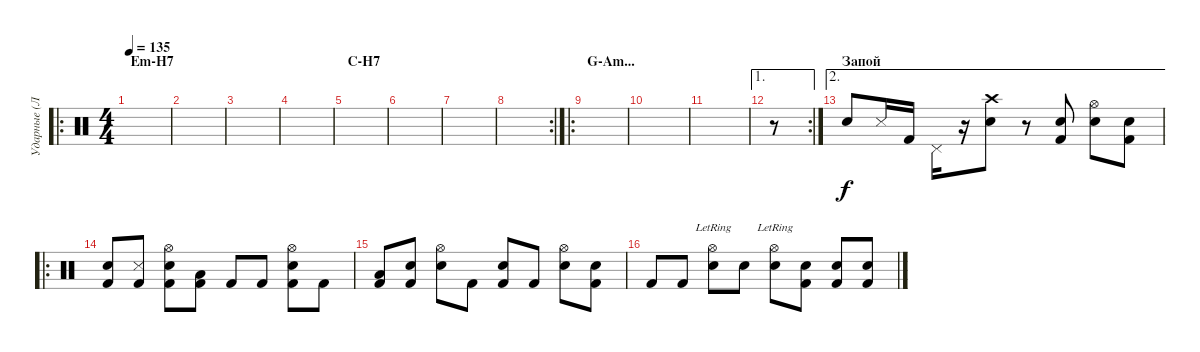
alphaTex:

\track ("Ударные (Лысов)" "Ударные (Л") {instrument percussion}
\staff {score}
\articulation defaults
\ro
\ts (4 4)
\section ("" "Em-H7")
\tempo 135
\clef neutral
\ks c
|
|
|
|
\section ("" "C-H7")
|
|
|
\rc 2
|
\ro
\section ("" "G-Am...")
|
|
|
\ae 1
\rc 2
r.8 |
\ae 2
\section ("" "Запой")
"Snare (hit) 2".8 "Snare (side stick) 3".16 "Kick (hit) 2".16 "Pedal Hi-Hat (hit)".16 r.16 ("Snare (hit) 2" "Crash high (hit)").8 r.8 ("Snare (hit) 2" "Kick (hit) 2").8 ("Hi-Hat (open)" "Snare (hit) 2").8 ("Snare (hit) 2" "Kick (hit) 2").8 |
\ro
("Kick (hit) 2" "Snare (hit) 2").8 ("Kick (hit) 2" "Snare (side stick) 3").8 ("Kick (hit) 2" "Hi-Hat (open)" "Snare (hit) 2").8 ("Kick (hit) 2" "Low Floor Tom (hit)").8 "Kick (hit) 2".8 "Kick (hit) 2".8 ("Kick (hit) 2" "Hi-Hat (open)" "Snare (hit) 2").8 "Kick (hit) 2".8 |
("Kick (hit) 2" "Low Floor Tom (hit)").8 ("Kick (hit) 2" "Snare (hit) 2").8 ("Hi-Hat (open)" "Snare (hit) 2").8 "Kick (hit) 2".8 ("Kick (hit) 2" "Snare (hit) 2").8 "Kick (hit) 2".8 ("Hi-Hat (open)" "Snare (hit) 2").8 ("Kick (hit) 2" "Snare (hit) 2").8 |
"Kick (hit) 2".8 "Kick (hit) 2".8 ("Hi-Hat (open)"{lr} "Snare (hit) 2").8 "Snare (hit) 2".8 ("Hi-Hat (open)"{lr} "Snare (hit) 2").8 ("Kick (hit) 2" "Snare (hit) 2").8 ("Kick (hit) 2" "Snare (hit) 2").8 ("Kick (hit) 2" "Snare (hit) 2").8
